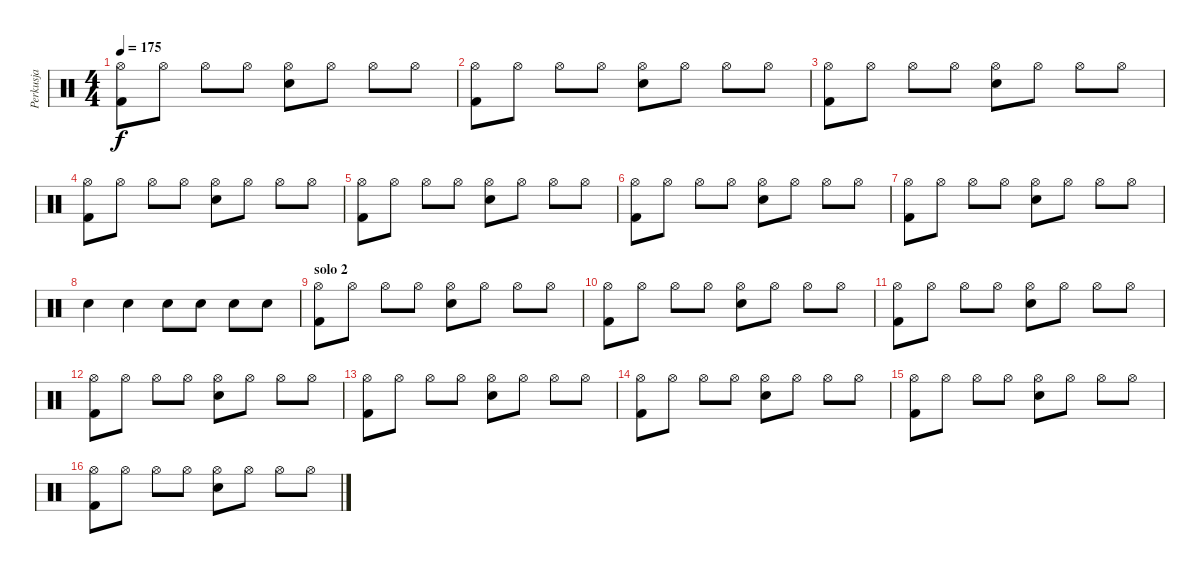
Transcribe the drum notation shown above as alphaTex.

\track ("Perkusja" "Perkusja") {instrument percussion}
\staff {score}
\articulation defaults
\ts (4 4)
\tempo 175
\clef neutral
\ks c
("Kick (hit) 2" "Hi-Hat (open)").8{dy f} "Hi-Hat (open)".8 "Hi-Hat (open)".8 "Hi-Hat (open)".8 ("Snare (hit) 2" "Hi-Hat (open)").8 "Hi-Hat (open)".8 "Hi-Hat (open)".8 "Hi-Hat (open)".8 |
("Kick (hit) 2" "Hi-Hat (open)").8 "Hi-Hat (open)".8 "Hi-Hat (open)".8 "Hi-Hat (open)".8 ("Snare (hit) 2" "Hi-Hat (open)").8 "Hi-Hat (open)".8 "Hi-Hat (open)".8 "Hi-Hat (open)".8 |
("Kick (hit) 2" "Hi-Hat (open)").8 "Hi-Hat (open)".8 "Hi-Hat (open)".8 "Hi-Hat (open)".8 ("Snare (hit) 2" "Hi-Hat (open)").8 "Hi-Hat (open)".8 "Hi-Hat (open)".8 "Hi-Hat (open)".8 |
("Kick (hit) 2" "Hi-Hat (open)").8 "Hi-Hat (open)".8 "Hi-Hat (open)".8 "Hi-Hat (open)".8 ("Snare (hit) 2" "Hi-Hat (open)").8 "Hi-Hat (open)".8 "Hi-Hat (open)".8 "Hi-Hat (open)".8 |
("Kick (hit) 2" "Hi-Hat (open)").8 "Hi-Hat (open)".8 "Hi-Hat (open)".8 "Hi-Hat (open)".8 ("Snare (hit) 2" "Hi-Hat (open)").8 "Hi-Hat (open)".8 "Hi-Hat (open)".8 "Hi-Hat (open)".8 |
("Kick (hit) 2" "Hi-Hat (open)").8 "Hi-Hat (open)".8 "Hi-Hat (open)".8 "Hi-Hat (open)".8 ("Snare (hit) 2" "Hi-Hat (open)").8 "Hi-Hat (open)".8 "Hi-Hat (open)".8 "Hi-Hat (open)".8 |
("Kick (hit) 2" "Hi-Hat (open)").8 "Hi-Hat (open)".8 "Hi-Hat (open)".8 "Hi-Hat (open)".8 ("Snare (hit) 2" "Hi-Hat (open)").8 "Hi-Hat (open)".8 "Hi-Hat (open)".8 "Hi-Hat (open)".8 |
"Snare (hit) 2".4 "Snare (hit) 2".4 "Snare (hit) 2".8 "Snare (hit) 2".8 "Snare (hit) 2".8 "Snare (hit) 2".8 |
\section ("" "solo 2")
("Kick (hit) 2" "Hi-Hat (open)").8 "Hi-Hat (open)".8 "Hi-Hat (open)".8 "Hi-Hat (open)".8 ("Snare (hit) 2" "Hi-Hat (open)").8 "Hi-Hat (open)".8 "Hi-Hat (open)".8 "Hi-Hat (open)".8 |
("Kick (hit) 2" "Hi-Hat (open)").8 "Hi-Hat (open)".8 "Hi-Hat (open)".8 "Hi-Hat (open)".8 ("Snare (hit) 2" "Hi-Hat (open)").8 "Hi-Hat (open)".8 "Hi-Hat (open)".8 "Hi-Hat (open)".8 |
("Kick (hit) 2" "Hi-Hat (open)").8 "Hi-Hat (open)".8 "Hi-Hat (open)".8 "Hi-Hat (open)".8 ("Snare (hit) 2" "Hi-Hat (open)").8 "Hi-Hat (open)".8 "Hi-Hat (open)".8 "Hi-Hat (open)".8 |
("Kick (hit) 2" "Hi-Hat (open)").8 "Hi-Hat (open)".8 "Hi-Hat (open)".8 "Hi-Hat (open)".8 ("Snare (hit) 2" "Hi-Hat (open)").8 "Hi-Hat (open)".8 "Hi-Hat (open)".8 "Hi-Hat (open)".8 |
("Kick (hit) 2" "Hi-Hat (open)").8 "Hi-Hat (open)".8 "Hi-Hat (open)".8 "Hi-Hat (open)".8 ("Snare (hit) 2" "Hi-Hat (open)").8 "Hi-Hat (open)".8 "Hi-Hat (open)".8 "Hi-Hat (open)".8 |
("Kick (hit) 2" "Hi-Hat (open)").8 "Hi-Hat (open)".8 "Hi-Hat (open)".8 "Hi-Hat (open)".8 ("Snare (hit) 2" "Hi-Hat (open)").8 "Hi-Hat (open)".8 "Hi-Hat (open)".8 "Hi-Hat (open)".8 |
("Kick (hit) 2" "Hi-Hat (open)").8 "Hi-Hat (open)".8 "Hi-Hat (open)".8 "Hi-Hat (open)".8 ("Snare (hit) 2" "Hi-Hat (open)").8 "Hi-Hat (open)".8 "Hi-Hat (open)".8 "Hi-Hat (open)".8 |
("Kick (hit) 2" "Hi-Hat (open)").8 "Hi-Hat (open)".8 "Hi-Hat (open)".8 "Hi-Hat (open)".8 ("Snare (hit) 2" "Hi-Hat (open)").8 "Hi-Hat (open)".8 "Hi-Hat (open)".8 "Hi-Hat (open)".8
